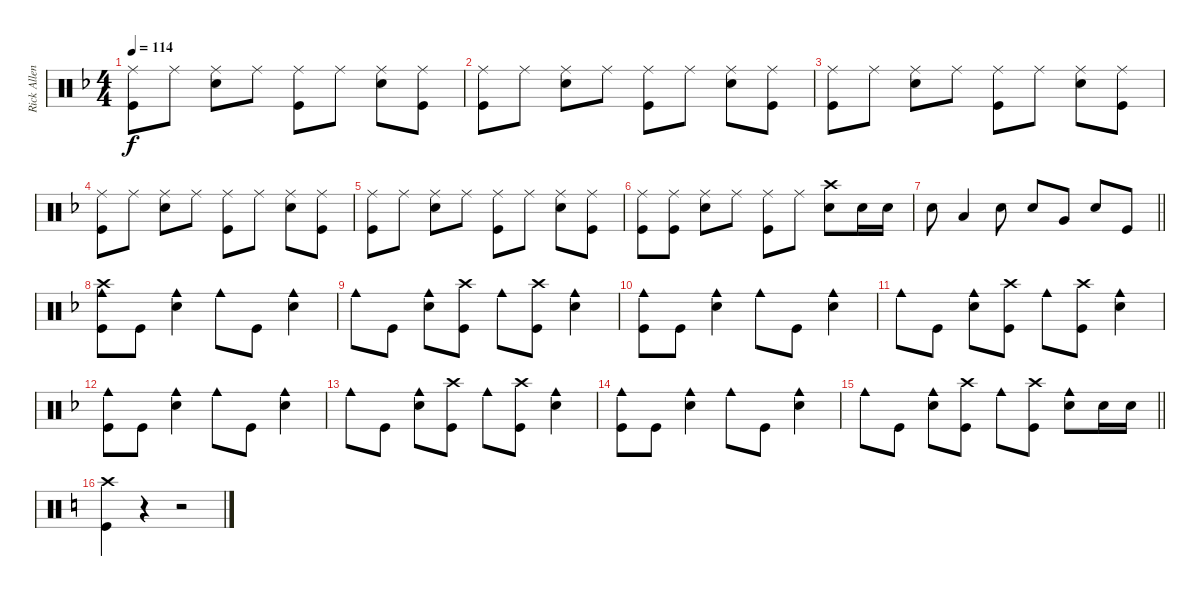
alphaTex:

\track ("Rick Allen" "Rick Allen") {instrument percussion}
\staff {score}
\articulation defaults
\ts (4 4)
\tempo 114
\clef neutral
\ks dminor
("Ride (middle)" "Kick (hit)").8{dy f} "Ride (middle)".8 ("Ride (middle)" "Snare (hit) 2").8 "Ride (middle)".8 ("Ride (middle)" "Kick (hit)").8 "Ride (middle)".8 ("Ride (middle)" "Snare (hit) 2").8 ("Ride (middle)" "Kick (hit)").8 |
("Ride (middle)" "Kick (hit)").8 "Ride (middle)".8 ("Ride (middle)" "Snare (hit) 2").8 "Ride (middle)".8 ("Ride (middle)" "Kick (hit)").8 "Ride (middle)".8 ("Ride (middle)" "Snare (hit) 2").8 ("Ride (middle)" "Kick (hit)").8 |
("Ride (middle)" "Kick (hit)").8 "Ride (middle)".8 ("Ride (middle)" "Snare (hit) 2").8 "Ride (middle)".8 ("Ride (middle)" "Kick (hit)").8 "Ride (middle)".8 ("Ride (middle)" "Snare (hit) 2").8 ("Ride (middle)" "Kick (hit)").8 |
("Ride (middle)" "Kick (hit)").8 "Ride (middle)".8 ("Ride (middle)" "Snare (hit) 2").8 "Ride (middle)".8 ("Ride (middle)" "Kick (hit)").8 "Ride (middle)".8 ("Ride (middle)" "Snare (hit) 2").8 ("Ride (middle)" "Kick (hit)").8 |
("Ride (middle)" "Kick (hit)").8 "Ride (middle)".8 ("Ride (middle)" "Snare (hit) 2").8 "Ride (middle)".8 ("Ride (middle)" "Kick (hit)").8 "Ride (middle)".8 ("Ride (middle)" "Snare (hit) 2").8 ("Ride (middle)" "Kick (hit)").8 |
("Ride (middle)" "Kick (hit)").8 ("Ride (middle)" "Kick (hit)").8 ("Ride (middle)" "Snare (hit) 2").8 "Ride (middle)".8 ("Ride (middle)" "Kick (hit)").8 "Ride (middle)".8 ("Crash high (hit)" "Snare (hit) 2").8 "Snare (hit) 2".16 "Snare (hit) 2".16 |
\barLineRight lightlight "Snare (hit) 2".8 "Low Tom (hit)".4 "Snare (hit) 2".8 "Snare (hit) 2".8 "Very Low Tom (hit)".8 "Snare (hit) 2".8 "Kick (hit)".8
|
("Cowbell medium (hit)" "Crash high (hit)" "Kick (hit)").8 "Kick (hit)".8 ("Cowbell medium (hit)" "Snare (hit) 2").4 "Cowbell medium (hit)".8 "Kick (hit)".8 ("Cowbell medium (hit)" "Snare (hit) 2").4 |
"Cowbell medium (hit)".8 "Kick (hit)".8 ("Cowbell medium (hit)" "Snare (hit) 2").8 ("Crash high (hit)" "Kick (hit)").8 "Cowbell medium (hit)".8 ("Crash high (hit)" "Kick (hit)").8 ("Cowbell medium (hit)" "Snare (hit) 2").4 |
("Cowbell medium (hit)" "Kick (hit)").8 "Kick (hit)".8 ("Cowbell medium (hit)" "Snare (hit) 2").4 "Cowbell medium (hit)".8 "Kick (hit)".8 ("Cowbell medium (hit)" "Snare (hit) 2").4 |
"Cowbell medium (hit)".8 "Kick (hit)".8 ("Cowbell medium (hit)" "Snare (hit) 2").8 ("Crash high (hit)" "Kick (hit)").8 "Cowbell medium (hit)".8 ("Crash high (hit)" "Kick (hit)").8 ("Cowbell medium (hit)" "Snare (hit) 2").4 |
("Cowbell medium (hit)" "Kick (hit)").8 "Kick (hit)".8 ("Cowbell medium (hit)" "Snare (hit) 2").4 "Cowbell medium (hit)".8 "Kick (hit)".8 ("Cowbell medium (hit)" "Snare (hit) 2").4 |
"Cowbell medium (hit)".8 "Kick (hit)".8 ("Cowbell medium (hit)" "Snare (hit) 2").8 ("Crash high (hit)" "Kick (hit)").8 "Cowbell medium (hit)".8 ("Crash high (hit)" "Kick (hit)").8 ("Cowbell medium (hit)" "Snare (hit) 2").4 |
("Cowbell medium (hit)" "Kick (hit)").8 "Kick (hit)".8 ("Cowbell medium (hit)" "Snare (hit) 2").4 "Cowbell medium (hit)".8 "Kick (hit)".8 ("Cowbell medium (hit)" "Snare (hit) 2").4 |
\barLineRight lightlight "Cowbell medium (hit)".8 "Kick (hit)".8
("Cowbell medium (hit)" "Snare (hit) 2").8 ("Crash high (hit)" "Kick (hit)").8 "Cowbell medium (hit)".8 ("Crash high (hit)" "Kick (hit)").8 ("Cowbell medium (hit)" "Snare (hit) 2").8 "Snare (hit) 2".16 "Snare (hit) 2".16 |
\ks aminor
("Crash high (hit)" "Kick (hit)").4 r.4 r.2
